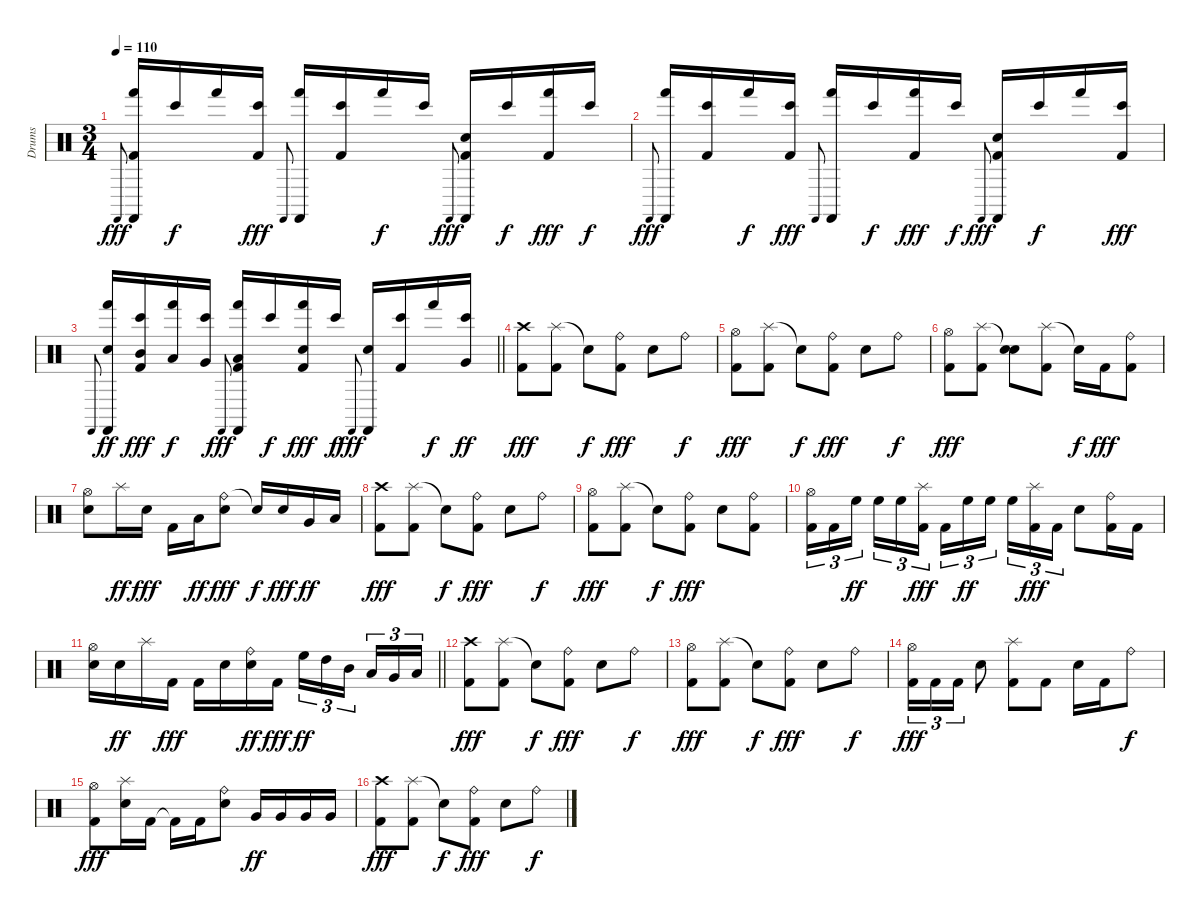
\track ("Drums" "Drums") {instrument percussion}
\staff {score}
\articulation defaults
\ts (3 4)
\tempo 110
\clef neutral
\ks c "Castanets (hit)".8{gr onbeat dy fff}
("Castanets (hit)" "Hand (hit)" "Kick (hit) 2").16 "Bongo High (hit)".16{dy f} "Hand (hit)".16 ("Bongo High (hit)" "Kick (hit) 2").16{dy fff} "Castanets (hit)".8{gr onbeat} ("Castanets (hit)" "Hand (hit)").16 ("Bongo High (hit)" "Kick (hit) 2").16 "Hand (hit)".16{dy f} "Bongo High (hit)".16 "Castanets (hit)".8{gr onbeat dy fff} ("Castanets (hit)" "Snare (hit) 2" "Kick (hit) 2").16 "Bongo High (hit)".16{dy f} ("Hand (hit)" "Kick (hit) 2").16{dy fff} "Bongo High (hit)".16{dy f} |
"Castanets (hit)".8{gr onbeat dy fff} ("Castanets (hit)" "Hand (hit)").16 ("Bongo High (hit)" "Kick (hit) 2").16 "Hand (hit)".16{dy f} ("Bongo High (hit)" "Kick (hit) 2").16{dy fff} "Castanets (hit)".8{gr onbeat} ("Castanets (hit)" "Hand (hit)").16 "Bongo High (hit)".16{dy f} ("Hand (hit)" "Kick (hit) 2").16{dy fff} "Bongo High (hit)".16{dy f} "Castanets (hit)".8{gr onbeat dy fff} ("Castanets (hit)" "Snare (hit) 2" "Kick (hit) 2").16 "Bongo High (hit)".16{dy f} "Hand (hit)".16 ("Bongo High (hit)" "Kick (hit) 2").16{dy fff} |
\barLineRight lightlight "Castanets (hit)".8{gr onbeat}
("Castanets (hit)" "Hand (hit)" "Snare (hit) 2").16{dy ff} ("Bongo High (hit)" "Mid Tom (hit)" "Kick (hit) 2").16{dy fff} ("Hand (hit)" "Low Tom (hit)").16{dy f} ("Bongo High (hit)" "Very Low Tom (hit)").16 "Castanets (hit)".8{gr onbeat dy fff} ("Castanets (hit)" "Hand (hit)" "Low Floor Tom (hit)" "Kick (hit) 2").16 "Bongo High (hit)".16{dy f} ("Hand (hit)" "Snare (hit) 2" "Kick (hit) 2").16{dy fff} "Bongo High (hit)".16{dy f} "Castanets (hit)".8{gr onbeat dy fff} ("Castanets (hit)" "Snare (hit) 2").16 ("Bongo High (hit)" "Kick (hit) 2").16 "Hand (hit)".16{dy f} ("Bongo High (hit)" "Very Low Tom (hit)").16{dy ff} |
\section ("" "")
("Crash high (hit)" "Kick (hit) 2").8{dy fff} ("Splash (hit)" "Kick (hit) 2").8 "Snare (hit)"{t}.8{dy f} ("Ride (bell)" "Kick (hit) 2").8{dy fff} "Snare (hit) 2".8 "Ride (bell)".8{dy f} |
("Hi-Hat (open)" "Kick (hit) 2").8{dy fff} ("Splash (hit)" "Kick (hit) 2").8 "Snare (hit)"{t}.8{dy f} ("Ride (bell)" "Kick (hit) 2").8{dy fff} "Snare (hit) 2".8 "Ride (bell)".8{dy f} |
("Hi-Hat (open)" "Kick (hit) 2").8{dy fff} ("Splash (hit)" "Kick (hit) 2").8 ("Snare (hit)"{t} "Snare (hit) 2").8 ("Splash (hit)" "Kick (hit) 2").8 "Snare (hit)"{t}.16{dy f} "Kick (hit) 2".16{dy fff} ("Ride (bell)" "Kick (hit) 2").8 |
("Hi-Hat (open)" "Snare (hit) 2").8 "Splash (hit)".16{dy ff} "Snare (hit) 2".16{dy fff} "Kick (hit) 2".16 "Low Tom (hit)".16{dy ff} ("Ride (bell)" "Snare (hit) 2").8{dy fff} "Snare (hit)"{t}.16{dy f} "Snare (hit) 2".16{dy fff} "Very Low Tom (hit)".16{dy ff} "Low Floor Tom (hit)".16 |
("Crash high (hit)" "Kick (hit) 2").8{dy fff} ("Splash (hit)" "Kick (hit) 2").8 "Snare (hit)"{t}.8{dy f} ("Ride (bell)" "Kick (hit) 2").8{dy fff} "Snare (hit) 2".8 "Ride (bell)".8{dy f} |
("Hi-Hat (open)" "Kick (hit) 2").8{dy fff} ("Splash (hit)" "Kick (hit) 2").8 "Snare (hit)"{t}.8{dy f} ("Ride (bell)" "Kick (hit) 2").8{dy fff} "Snare (hit) 2".8 ("Ride (bell)" "Kick (hit) 2").8 |
("Hi-Hat (open)" "Kick (hit) 2").16{tu (3 2)} "Kick (hit) 2".16{tu (3 2)} "High Floor Tom (hit)".16{tu (3 2) dy ff beam splitsecondary} "High Floor Tom (hit)".16{tu (3 2)} "High Floor Tom (hit)".16{tu (3 2)} ("Splash (hit)" "Kick (hit) 2").16{tu (3 2) dy fff} "Kick (hit) 2".16{tu (3 2)} "High Floor Tom (hit)".16{tu (3 2) dy ff} "High Floor Tom (hit)".16{tu (3 2) beam splitsecondary} "High Floor Tom (hit)".16{tu (3 2)} ("Splash (hit)" "Kick (hit) 2").16{tu (3 2) dy fff} "Kick (hit) 2".16{tu (3 2)} "Snare (hit) 2".8 ("Ride (bell)" "Kick (hit) 2").16 "Kick (hit) 2".16 |
\barLineRight lightlight
("Hi-Hat (open)" "Snare (hit) 2").16 "Snare (hit) 2".16{dy ff} "Splash (hit)".16 "Kick (hit) 2".16{dy fff} "Kick (hit) 2".16 "Snare (hit) 2".16 ("Ride (bell)" "Snare (hit) 2").16{dy ff} "Kick (hit) 2".16{dy fff} "High Floor Tom (hit)".16{tu (3 2) dy ff} "High Tom (hit)".16{tu (3 2)} "Mid Tom (hit)".16{tu (3 2) beam splitsecondary} "Low Tom (hit)".16{tu (3 2)} "Very Low Tom (hit)".16{tu (3 2)} "Low Floor Tom (hit)".16{tu (3 2)} |
\section ("" "")
("Crash high (hit)" "Kick (hit) 2").8{dy fff} ("Splash (hit)" "Kick (hit) 2").8 "Snare (hit)"{t}.8{dy f} ("Ride (bell)" "Kick (hit) 2").8{dy fff} "Snare (hit) 2".8 "Ride (bell)".8{dy f} |
("Hi-Hat (open)" "Kick (hit) 2").8{dy fff} ("Splash (hit)" "Kick (hit) 2").8 "Snare (hit)"{t}.8{dy f} ("Ride (bell)" "Kick (hit) 2").8{dy fff} "Snare (hit) 2".8 "Ride (bell)".8{dy f} |
("Hi-Hat (open)" "Kick (hit) 2").16{tu (3 2) dy fff} "Kick (hit) 2".16{tu (3 2)} "Kick (hit) 2".16{tu (3 2)} "Snare (hit) 2".8 ("Splash (hit)" "Kick (hit) 2").8 "Kick (hit) 2".8 "Snare (hit) 2".16 "Kick (hit) 2".16 "Ride (bell)".8{dy f} |
("Hi-Hat (open)" "Kick (hit) 2").8{dy fff} ("Splash (hit)" "Snare (hit) 2").16 "Kick (hit) 2".16 "Kick (hit) 2"{t}.16 "Kick (hit) 2".16 ("Ride (bell)" "Snare (hit) 2").8 "Very Low Tom (hit)".16{dy ff} "Very Low Tom (hit)".16 "Very Low Tom (hit)".16 "Very Low Tom (hit)".16 |
("Crash high (hit)" "Kick (hit) 2").8{dy fff} ("Splash (hit)" "Kick (hit) 2").8 "Snare (hit)"{t}.8{dy f} ("Ride (bell)" "Kick (hit) 2").8{dy fff} "Snare (hit) 2".8 "Ride (bell)".8{dy f}
